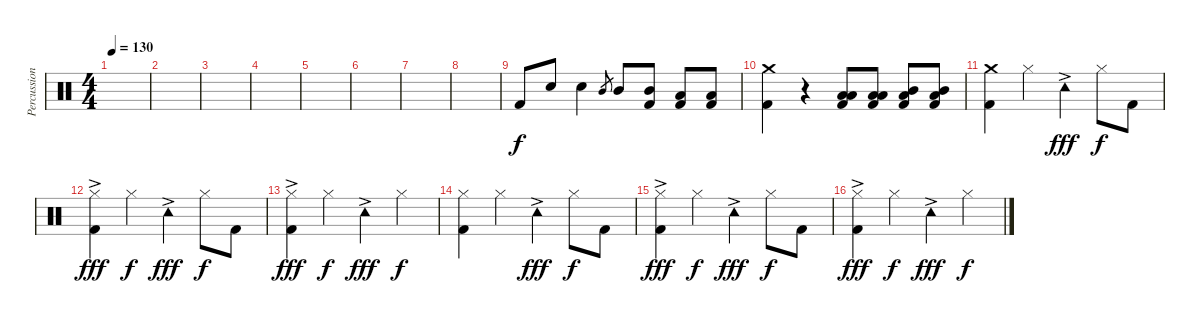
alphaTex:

\track ("Percussion" "Percussion") {instrument percussion}
\staff {score}
\articulation defaults
\ts (4 4)
\tempo 130
\clef neutral
\ks c
|
|
|
|
|
|
|
|
"Kick (hit) 2".8 "Snare (hit) 2".8 "Snare (hit) 2".4 "Mid Tom (hit)".8{gr} "Mid Tom (hit)".8 ("Mid Tom (hit)" "Kick (hit) 2").8 ("Low Tom (hit)" "Kick (hit) 2").8 ("Low Tom (hit)" "Kick (hit) 2").8 |
("Crash medium (hit)" "Kick (hit) 2").4 r.4 ("Low Tom (hit)" "Low Tom (hit)" "Kick (hit) 2").8 ("Low Tom (hit)" "Low Tom (hit)" "Kick (hit) 2").8 ("Mid Tom (hit)" "Low Tom (hit)" "Kick (hit) 2").8 ("Mid Tom (hit)" "Low Tom (hit)" "Kick (hit) 2").8 |
("Kick (hit) 2" "Crash medium (hit)").4 "Hi-Hat (closed)".4 "Tambourine (hit)"{ac}.4{dy fff} "Hi-Hat (closed)".8{dy f} "Kick (hit) 2".8 |
("Hi-Hat (closed)"{ac} "Kick (hit) 2").4{dy fff} "Hi-Hat (closed)".4{dy f} "Tambourine (hit)"{ac}.4{dy fff} "Hi-Hat (closed)".8{dy f} "Kick (hit) 2".8 |
("Hi-Hat (closed)"{ac} "Kick (hit) 2").4{dy fff} "Hi-Hat (closed)".4{dy f} "Tambourine (hit)"{ac}.4{dy fff} "Hi-Hat (closed)".4{dy f} |
("Kick (hit) 2" "Hi-Hat (closed)").4 "Hi-Hat (closed)".4 "Tambourine (hit)"{ac}.4{dy fff} "Hi-Hat (closed)".8{dy f} "Kick (hit) 2".8 |
("Hi-Hat (closed)"{ac} "Kick (hit) 2").4{dy fff} "Hi-Hat (closed)".4{dy f} "Tambourine (hit)"{ac}.4{dy fff} "Hi-Hat (closed)".8{dy f} "Kick (hit) 2".8 |
("Hi-Hat (closed)"{ac} "Kick (hit) 2").4{dy fff} "Hi-Hat (closed)".4{dy f} "Tambourine (hit)"{ac}.4{dy fff} "Hi-Hat (closed)".4{dy f}
